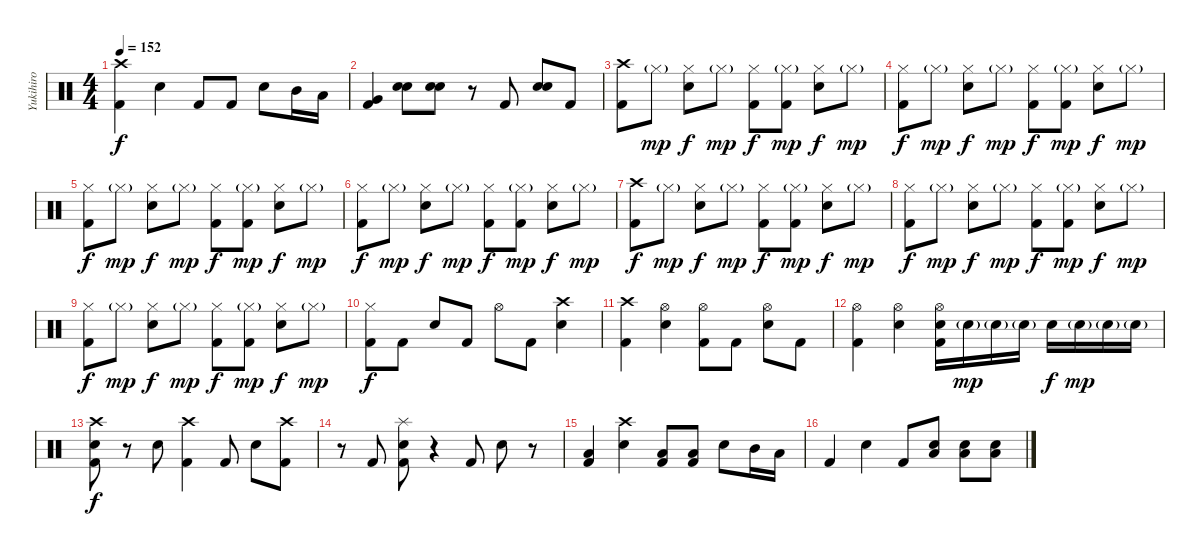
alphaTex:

\track ("Yukihiro" "Yukihiro") {instrument percussion}
\staff {score}
\articulation defaults
\ts (4 4)
\tempo 152
\clef neutral
\ks c
("Crash high (hit)" "Kick (hit) 2").4{dy f} "Electric Snare (hit)".4 "Kick (hit) 2".8 "Kick (hit) 2".8 "Electric Snare (hit)".8 "Mid Tom (hit)".16 "Low Tom (hit)".16 |
("Very Low Tom (hit)" "Kick (hit) 2").4 ("Electric Snare (hit)" "Hand Clap (hit)").8 ("Electric Snare (hit)" "Hand Clap (hit)").8 r.8 "Kick (hit) 2".8 ("Electric Snare (hit)" "Hand Clap (hit)").8 "Kick (hit) 2".8 |
("Crash high (hit)" "Kick (hit) 2").8 "Hi-Hat (closed)"{g}.8{dy mp} ("Hi-Hat (closed)" "Electric Snare (hit)").8{dy f} "Hi-Hat (closed)"{g}.8{dy mp} ("Hi-Hat (closed)" "Kick (hit) 2").8{dy f} ("Hi-Hat (closed)"{g} "Kick (hit) 2").8{dy mp} ("Hi-Hat (closed)" "Electric Snare (hit)").8{dy f} "Hi-Hat (closed)"{g}.8{dy mp} |
("Hi-Hat (closed)" "Kick (hit) 2").8{dy f} "Hi-Hat (closed)"{g}.8{dy mp} ("Hi-Hat (closed)" "Electric Snare (hit)").8{dy f} "Hi-Hat (closed)"{g}.8{dy mp} ("Hi-Hat (closed)" "Kick (hit) 2").8{dy f} ("Hi-Hat (closed)"{g} "Kick (hit) 2").8{dy mp} ("Hi-Hat (closed)" "Electric Snare (hit)").8{dy f} "Hi-Hat (closed)"{g}.8{dy mp} |
("Hi-Hat (closed)" "Kick (hit) 2").8{dy f} "Hi-Hat (closed)"{g}.8{dy mp} ("Hi-Hat (closed)" "Electric Snare (hit)").8{dy f} "Hi-Hat (closed)"{g}.8{dy mp} ("Hi-Hat (closed)" "Kick (hit) 2").8{dy f} ("Hi-Hat (closed)"{g} "Kick (hit) 2").8{dy mp} ("Hi-Hat (closed)" "Electric Snare (hit)").8{dy f} "Hi-Hat (closed)"{g}.8{dy mp} |
("Hi-Hat (closed)" "Kick (hit) 2").8{dy f} "Hi-Hat (closed)"{g}.8{dy mp} ("Hi-Hat (closed)" "Electric Snare (hit)").8{dy f} "Hi-Hat (closed)"{g}.8{dy mp} ("Hi-Hat (closed)" "Kick (hit) 2").8{dy f} ("Hi-Hat (closed)"{g} "Kick (hit) 2").8{dy mp} ("Hi-Hat (closed)" "Electric Snare (hit)").8{dy f} "Hi-Hat (closed)"{g}.8{dy mp} |
("Crash high (hit)" "Kick (hit) 2").8{dy f} "Hi-Hat (closed)"{g}.8{dy mp} ("Hi-Hat (closed)" "Electric Snare (hit)").8{dy f} "Hi-Hat (closed)"{g}.8{dy mp} ("Hi-Hat (closed)" "Kick (hit) 2").8{dy f} ("Hi-Hat (closed)"{g} "Kick (hit) 2").8{dy mp} ("Hi-Hat (closed)" "Electric Snare (hit)").8{dy f} "Hi-Hat (closed)"{g}.8{dy mp} |
("Hi-Hat (closed)" "Kick (hit) 2").8{dy f} "Hi-Hat (closed)"{g}.8{dy mp} ("Hi-Hat (closed)" "Electric Snare (hit)").8{dy f} "Hi-Hat (closed)"{g}.8{dy mp} ("Hi-Hat (closed)" "Kick (hit) 2").8{dy f} ("Hi-Hat (closed)"{g} "Kick (hit) 2").8{dy mp} ("Hi-Hat (closed)" "Electric Snare (hit)").8{dy f} "Hi-Hat (closed)"{g}.8{dy mp} |
("Hi-Hat (closed)" "Kick (hit) 2").8{dy f} "Hi-Hat (closed)"{g}.8{dy mp} ("Hi-Hat (closed)" "Electric Snare (hit)").8{dy f} "Hi-Hat (closed)"{g}.8{dy mp} ("Hi-Hat (closed)" "Kick (hit) 2").8{dy f} ("Hi-Hat (closed)"{g} "Kick (hit) 2").8{dy mp} ("Hi-Hat (closed)" "Electric Snare (hit)").8{dy f} "Hi-Hat (closed)"{g}.8{dy mp} |
("Hi-Hat (closed)" "Kick (hit) 2").8{dy f} "Kick (hit) 2".8 "Electric Snare (hit)".8 "Kick (hit) 2".8 "Hi-Hat (open)".8 "Kick (hit) 2".8 ("Crash high (hit)" "Electric Snare (hit)").4 |
("Crash high (hit)" "Kick (hit) 2").4 ("Hi-Hat (open)" "Electric Snare (hit)").4 ("Hi-Hat (open)" "Kick (hit) 2").8 "Kick (hit) 2".8 ("Hi-Hat (open)" "Electric Snare (hit)").8 "Kick (hit) 2".8 |
("Hi-Hat (open)" "Kick (hit) 2").4 ("Hi-Hat (open)" "Electric Snare (hit)").4 ("Hi-Hat (open)" "Electric Snare (hit)" "Kick (hit) 2").16 "Electric Snare (hit)"{g}.16{dy mp} "Electric Snare (hit)"{g}.16 "Electric Snare (hit)"{g}.16 "Electric Snare (hit)".16{dy f} "Electric Snare (hit)"{g}.16{dy mp} "Electric Snare (hit)"{g}.16 "Electric Snare (hit)"{g}.16 |
("Crash high (hit)" "Electric Snare (hit)" "Kick (hit) 2").8{dy f} r.8 "Electric Snare (hit)".8 ("Crash high (hit)" "Kick (hit) 2").4 "Kick (hit) 2".8 "Electric Snare (hit)".8 ("Crash high (hit)" "Kick (hit) 2").8 |
r.8 "Kick (hit) 2".8 ("Splash (hit)" "Electric Snare (hit)" "Kick (hit) 2").8 r.4 "Kick (hit) 2".8 "Electric Snare (hit)".8 r.8 |
("Low Floor Tom (hit)" "Kick (hit) 2").4 ("Crash high (hit)" "Electric Snare (hit)").4 ("Low Floor Tom (hit)" "Kick (hit) 2").8 ("Low Floor Tom (hit)" "Kick (hit) 2").8 "Electric Snare (hit)".8 "Mid Tom (hit)".16 "Low Tom (hit)".16 |
"Kick (hit) 2".4 "Electric Snare (hit)".4 "Kick (hit) 2".8 ("Low Floor Tom (hit)" "Electric Snare (hit)").8 ("Low Floor Tom (hit)" "Electric Snare (hit)").8 ("Low Floor Tom (hit)" "Electric Snare (hit)").8
